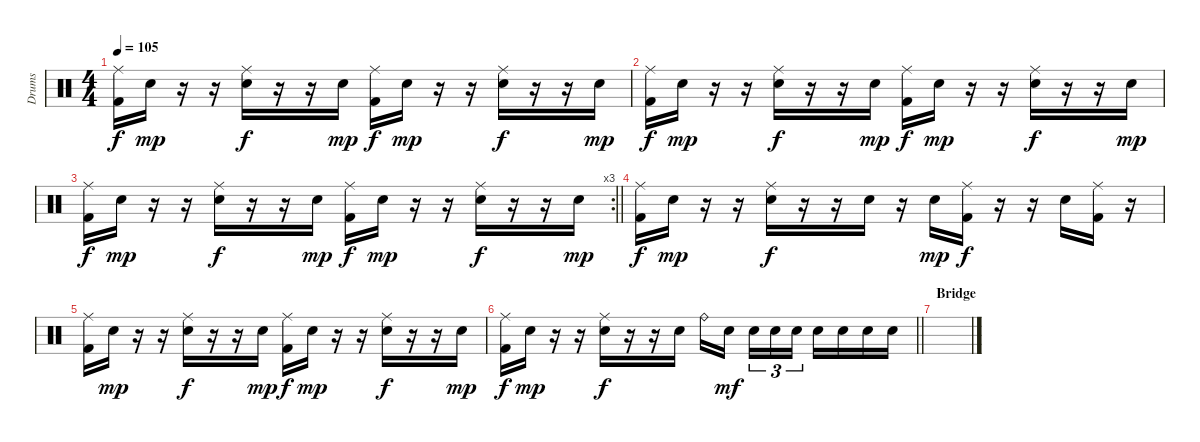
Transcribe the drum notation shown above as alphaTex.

\track ("Drums" "Drums") {instrument percussion}
\staff {score}
\articulation defaults
\ts (4 4)
\tempo 105
\clef neutral
\ks c
("Ride (middle)" "Kick (hit) 2").16{dy f} "Electric Snare (hit)".16{dy mp} r.16 r.16 ("Ride (middle)" "Electric Snare (hit)").16{dy f} r.16 r.16 "Electric Snare (hit)".16{dy mp} ("Ride (middle)" "Kick (hit) 2").16{dy f} "Electric Snare (hit)".16{dy mp} r.16 r.16 ("Ride (middle)" "Electric Snare (hit)").16{dy f} r.16 r.16 "Electric Snare (hit)".16{dy mp} |
("Ride (middle)" "Kick (hit) 2").16{dy f} "Electric Snare (hit)".16{dy mp} r.16 r.16 ("Ride (middle)" "Electric Snare (hit)").16{dy f} r.16 r.16 "Electric Snare (hit)".16{dy mp} ("Ride (middle)" "Kick (hit) 2").16{dy f} "Electric Snare (hit)".16{dy mp} r.16 r.16 ("Ride (middle)" "Electric Snare (hit)").16{dy f} r.16 r.16 "Electric Snare (hit)".16{dy mp} |
\rc 3
\barLineRight lightlight
("Ride (middle)" "Kick (hit) 2").16{dy f} "Electric Snare (hit)".16{dy mp} r.16 r.16 ("Ride (middle)" "Electric Snare (hit)").16{dy f} r.16 r.16 "Electric Snare (hit)".16{dy mp} ("Ride (middle)" "Kick (hit) 2").16{dy f} "Electric Snare (hit)".16{dy mp} r.16 r.16 ("Ride (middle)" "Electric Snare (hit)").16{dy f} r.16 r.16 "Electric Snare (hit)".16{dy mp} |
("Ride (middle)" "Kick (hit) 2").16{dy f} "Electric Snare (hit)".16{dy mp} r.16 r.16 ("Ride (middle)" "Electric Snare (hit)").16{dy f} r.16 r.16 "Electric Snare (hit)".16 r.16 "Electric Snare (hit)".16{dy mp} ("Ride (middle)" "Kick (hit) 2").16{dy f} r.16 r.16 "Electric Snare (hit)".16 ("Ride (middle)" "Kick (hit) 2").16 r.16 |
("Ride (middle)" "Kick (hit) 2").16 "Electric Snare (hit)".16{dy mp} r.16 r.16 ("Ride (middle)" "Electric Snare (hit)").16{dy f} r.16 r.16 "Electric Snare (hit)".16{dy mp} ("Ride (middle)" "Kick (hit) 2").16{dy f} "Electric Snare (hit)".16{dy mp} r.16 r.16 ("Ride (middle)" "Electric Snare (hit)").16{dy f} r.16 r.16 "Electric Snare (hit)".16{dy mp} |
\barLineRight lightlight
("Ride (middle)" "Kick (hit) 2").16{dy f} "Electric Snare (hit)".16{dy mp} r.16 r.16 ("Ride (middle)" "Electric Snare (hit)").16{dy f} r.16 r.16 "Electric Snare (hit)".16 "Ride (bell)".16 "Electric Snare (hit)".16{dy mf beam splitsecondary} "Electric Snare (hit)".16{tu (3 2)} "Electric Snare (hit)".16{tu (3 2)} "Electric Snare (hit)".16{tu (3 2)} "Electric Snare (hit)".16 "Electric Snare (hit)".16 "Electric Snare (hit)".16 "Electric Snare (hit)".16 |
\section ("" "Bridge")
